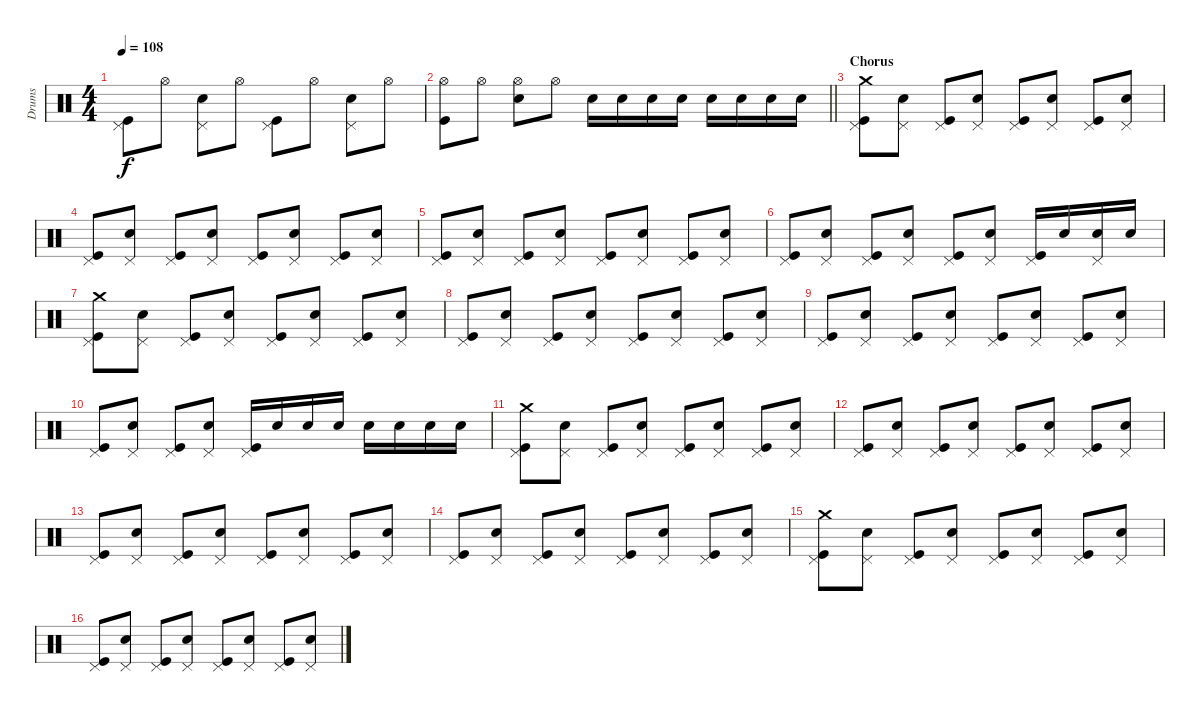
\track ("Drums" "Drums") {instrument percussion}
\staff {score}
\articulation defaults
\ts (4 4)
\tempo 108
\clef neutral
\ks c
("Pedal Hi-Hat (hit)" "Kick (hit)").8{dy f} "Hi-Hat (open)".8 ("Pedal Hi-Hat (hit)" "Electric Snare (hit)").8 "Hi-Hat (open)".8 ("Pedal Hi-Hat (hit)" "Kick (hit)").8 "Hi-Hat (open)".8 ("Pedal Hi-Hat (hit)" "Electric Snare (hit)").8 "Hi-Hat (open)".8 |
\barLineRight lightlight
("Hi-Hat (open)" "Kick (hit)").8 "Hi-Hat (open)".8 ("Hi-Hat (open)" "Electric Snare (hit)").8 "Hi-Hat (open)".8 "Electric Snare (hit)".16 "Electric Snare (hit)".16 "Electric Snare (hit)".16 "Electric Snare (hit)".16 "Electric Snare (hit)".16 "Electric Snare (hit)".16 "Electric Snare (hit)".16 "Electric Snare (hit)".16 |
\section ("" "Chorus")
("Pedal Hi-Hat (hit)" "Crash medium (hit)" "Kick (hit)").8 ("Pedal Hi-Hat (hit)" "Electric Snare (hit)").8 ("Pedal Hi-Hat (hit)" "Kick (hit)").8 ("Pedal Hi-Hat (hit)" "Electric Snare (hit)").8 ("Pedal Hi-Hat (hit)" "Kick (hit)").8 ("Pedal Hi-Hat (hit)" "Electric Snare (hit)").8 ("Pedal Hi-Hat (hit)" "Kick (hit)").8 ("Pedal Hi-Hat (hit)" "Electric Snare (hit)").8 |
("Pedal Hi-Hat (hit)" "Kick (hit)").8 ("Pedal Hi-Hat (hit)" "Electric Snare (hit)").8 ("Pedal Hi-Hat (hit)" "Kick (hit)").8 ("Pedal Hi-Hat (hit)" "Electric Snare (hit)").8 ("Pedal Hi-Hat (hit)" "Kick (hit)").8 ("Pedal Hi-Hat (hit)" "Electric Snare (hit)").8 ("Pedal Hi-Hat (hit)" "Kick (hit)").8 ("Pedal Hi-Hat (hit)" "Electric Snare (hit)").8 |
("Pedal Hi-Hat (hit)" "Kick (hit)").8 ("Pedal Hi-Hat (hit)" "Electric Snare (hit)").8 ("Pedal Hi-Hat (hit)" "Kick (hit)").8 ("Pedal Hi-Hat (hit)" "Electric Snare (hit)").8 ("Pedal Hi-Hat (hit)" "Kick (hit)").8 ("Pedal Hi-Hat (hit)" "Electric Snare (hit)").8 ("Pedal Hi-Hat (hit)" "Kick (hit)").8 ("Pedal Hi-Hat (hit)" "Electric Snare (hit)").8 |
("Pedal Hi-Hat (hit)" "Kick (hit)").8 ("Pedal Hi-Hat (hit)" "Electric Snare (hit)").8 ("Pedal Hi-Hat (hit)" "Kick (hit)").8 ("Pedal Hi-Hat (hit)" "Electric Snare (hit)").8 ("Pedal Hi-Hat (hit)" "Kick (hit)").8 ("Pedal Hi-Hat (hit)" "Electric Snare (hit)").8 ("Pedal Hi-Hat (hit)" "Kick (hit)").16 "Electric Snare (hit)".16 ("Pedal Hi-Hat (hit)" "Electric Snare (hit)").16 "Electric Snare (hit)".16 |
("Pedal Hi-Hat (hit)" "Crash medium (hit)" "Kick (hit)").8 ("Pedal Hi-Hat (hit)" "Electric Snare (hit)").8 ("Pedal Hi-Hat (hit)" "Kick (hit)").8 ("Pedal Hi-Hat (hit)" "Electric Snare (hit)").8 ("Pedal Hi-Hat (hit)" "Kick (hit)").8 ("Pedal Hi-Hat (hit)" "Electric Snare (hit)").8 ("Pedal Hi-Hat (hit)" "Kick (hit)").8 ("Pedal Hi-Hat (hit)" "Electric Snare (hit)").8 |
("Pedal Hi-Hat (hit)" "Kick (hit)").8 ("Pedal Hi-Hat (hit)" "Electric Snare (hit)").8 ("Pedal Hi-Hat (hit)" "Kick (hit)").8 ("Pedal Hi-Hat (hit)" "Electric Snare (hit)").8 ("Pedal Hi-Hat (hit)" "Kick (hit)").8 ("Pedal Hi-Hat (hit)" "Electric Snare (hit)").8 ("Pedal Hi-Hat (hit)" "Kick (hit)").8 ("Pedal Hi-Hat (hit)" "Electric Snare (hit)").8 |
("Pedal Hi-Hat (hit)" "Kick (hit)").8 ("Pedal Hi-Hat (hit)" "Electric Snare (hit)").8 ("Pedal Hi-Hat (hit)" "Kick (hit)").8 ("Pedal Hi-Hat (hit)" "Electric Snare (hit)").8 ("Pedal Hi-Hat (hit)" "Kick (hit)").8 ("Pedal Hi-Hat (hit)" "Electric Snare (hit)").8 ("Pedal Hi-Hat (hit)" "Kick (hit)").8 ("Pedal Hi-Hat (hit)" "Electric Snare (hit)").8 |
("Pedal Hi-Hat (hit)" "Kick (hit)").8 ("Pedal Hi-Hat (hit)" "Electric Snare (hit)").8 ("Pedal Hi-Hat (hit)" "Kick (hit)").8 ("Pedal Hi-Hat (hit)" "Electric Snare (hit)").8 ("Pedal Hi-Hat (hit)" "Kick (hit)").16 "Electric Snare (hit)".16 "Electric Snare (hit)".16 "Electric Snare (hit)".16 "Electric Snare (hit)".16 "Electric Snare (hit)".16 "Electric Snare (hit)".16 "Electric Snare (hit)".16 |
("Pedal Hi-Hat (hit)" "Crash medium (hit)" "Kick (hit)").8 ("Pedal Hi-Hat (hit)" "Electric Snare (hit)").8 ("Pedal Hi-Hat (hit)" "Kick (hit)").8 ("Pedal Hi-Hat (hit)" "Electric Snare (hit)").8 ("Pedal Hi-Hat (hit)" "Kick (hit)").8 ("Pedal Hi-Hat (hit)" "Electric Snare (hit)").8 ("Pedal Hi-Hat (hit)" "Kick (hit)").8 ("Pedal Hi-Hat (hit)" "Electric Snare (hit)").8 |
("Pedal Hi-Hat (hit)" "Kick (hit)").8 ("Pedal Hi-Hat (hit)" "Electric Snare (hit)").8 ("Pedal Hi-Hat (hit)" "Kick (hit)").8 ("Pedal Hi-Hat (hit)" "Electric Snare (hit)").8 ("Pedal Hi-Hat (hit)" "Kick (hit)").8 ("Pedal Hi-Hat (hit)" "Electric Snare (hit)").8 ("Pedal Hi-Hat (hit)" "Kick (hit)").8 ("Pedal Hi-Hat (hit)" "Electric Snare (hit)").8 |
("Pedal Hi-Hat (hit)" "Kick (hit)").8 ("Pedal Hi-Hat (hit)" "Electric Snare (hit)").8 ("Pedal Hi-Hat (hit)" "Kick (hit)").8 ("Pedal Hi-Hat (hit)" "Electric Snare (hit)").8 ("Pedal Hi-Hat (hit)" "Kick (hit)").8 ("Pedal Hi-Hat (hit)" "Electric Snare (hit)").8 ("Pedal Hi-Hat (hit)" "Kick (hit)").8 ("Pedal Hi-Hat (hit)" "Electric Snare (hit)").8 |
("Pedal Hi-Hat (hit)" "Kick (hit)").8 ("Pedal Hi-Hat (hit)" "Electric Snare (hit)").8 ("Pedal Hi-Hat (hit)" "Kick (hit)").8 ("Pedal Hi-Hat (hit)" "Electric Snare (hit)").8 ("Pedal Hi-Hat (hit)" "Kick (hit)").8 ("Pedal Hi-Hat (hit)" "Electric Snare (hit)").8 ("Pedal Hi-Hat (hit)" "Kick (hit)").8 ("Pedal Hi-Hat (hit)" "Electric Snare (hit)").8 |
("Pedal Hi-Hat (hit)" "Crash medium (hit)" "Kick (hit)").8 ("Pedal Hi-Hat (hit)" "Electric Snare (hit)").8 ("Pedal Hi-Hat (hit)" "Kick (hit)").8 ("Pedal Hi-Hat (hit)" "Electric Snare (hit)").8 ("Pedal Hi-Hat (hit)" "Kick (hit)").8 ("Pedal Hi-Hat (hit)" "Electric Snare (hit)").8 ("Pedal Hi-Hat (hit)" "Kick (hit)").8 ("Pedal Hi-Hat (hit)" "Electric Snare (hit)").8 |
("Pedal Hi-Hat (hit)" "Kick (hit)").8 ("Pedal Hi-Hat (hit)" "Electric Snare (hit)").8 ("Pedal Hi-Hat (hit)" "Kick (hit)").8 ("Pedal Hi-Hat (hit)" "Electric Snare (hit)").8 ("Pedal Hi-Hat (hit)" "Kick (hit)").8 ("Pedal Hi-Hat (hit)" "Electric Snare (hit)").8 ("Pedal Hi-Hat (hit)" "Kick (hit)").8 ("Pedal Hi-Hat (hit)" "Electric Snare (hit)").8
